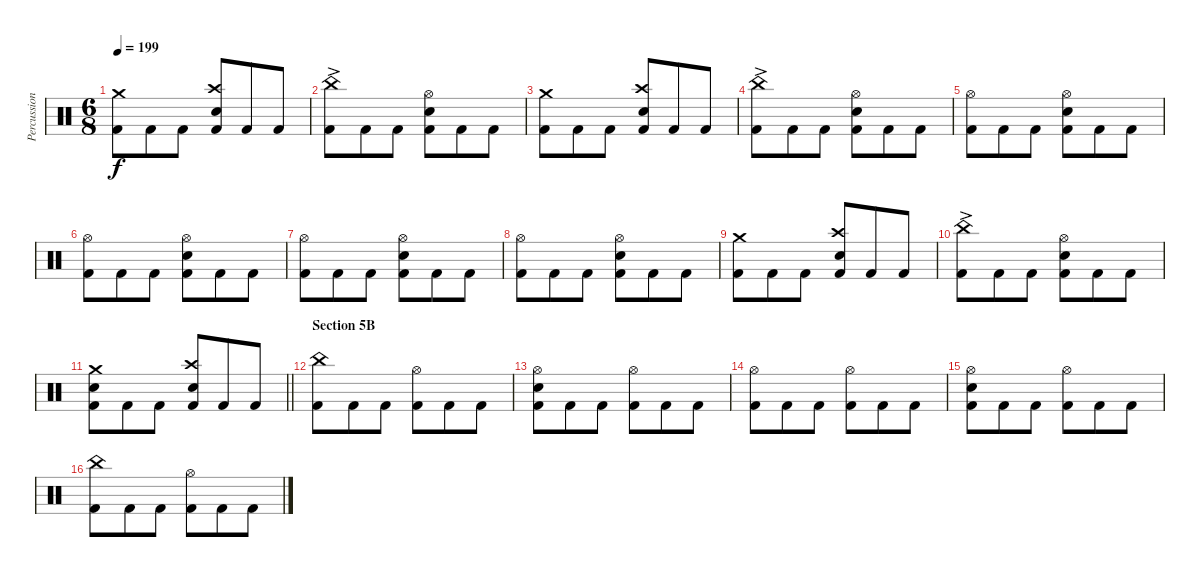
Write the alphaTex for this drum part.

\track ("Percussion" "Percussion") {instrument percussion}
\staff {score}
\articulation defaults
\ts (6 8)
\tempo 199
\clef neutral
\ks c
("Crash medium (hit)" "Kick (hit) 2").8{dy f} "Kick (hit) 2".8 "Kick (hit) 2".8 ("Crash high (hit)" "Electric Snare (hit)" "Kick (hit) 2").8 "Kick (hit) 2".8 "Kick (hit) 2".8 |
("China (hit)"{ac} "Kick (hit) 2").8 "Kick (hit) 2".8 "Kick (hit) 2".8 ("Hi-Hat (open)" "Electric Snare (hit)" "Kick (hit) 2").8 "Kick (hit) 2".8 "Kick (hit) 2".8 |
("Crash medium (hit)" "Kick (hit) 2").8 "Kick (hit) 2".8 "Kick (hit) 2".8 ("Crash high (hit)" "Electric Snare (hit)" "Kick (hit) 2").8 "Kick (hit) 2".8 "Kick (hit) 2".8 |
("China (hit)"{ac} "Kick (hit) 2").8 "Kick (hit) 2".8 "Kick (hit) 2".8 ("Hi-Hat (open)" "Electric Snare (hit)" "Kick (hit) 2").8 "Kick (hit) 2".8 "Kick (hit) 2".8 |
("Hi-Hat (open)" "Kick (hit) 2").8 "Kick (hit) 2".8 "Kick (hit) 2".8 ("Hi-Hat (open)" "Electric Snare (hit)" "Kick (hit) 2").8 "Kick (hit) 2".8 "Kick (hit) 2".8 |
("Hi-Hat (open)" "Kick (hit) 2").8 "Kick (hit) 2".8 "Kick (hit) 2".8 ("Hi-Hat (open)" "Electric Snare (hit)" "Kick (hit) 2").8 "Kick (hit) 2".8 "Kick (hit) 2".8 |
("Hi-Hat (open)" "Kick (hit) 2").8 "Kick (hit) 2".8 "Kick (hit) 2".8 ("Hi-Hat (open)" "Electric Snare (hit)" "Kick (hit) 2").8 "Kick (hit) 2".8 "Kick (hit) 2".8 |
("Hi-Hat (open)" "Kick (hit) 2").8 "Kick (hit) 2".8 "Kick (hit) 2".8 ("Hi-Hat (open)" "Electric Snare (hit)" "Kick (hit) 2").8 "Kick (hit) 2".8 "Kick (hit) 2".8 |
("Crash medium (hit)" "Kick (hit) 2").8 "Kick (hit) 2".8 "Kick (hit) 2".8 ("Crash high (hit)" "Electric Snare (hit)" "Kick (hit) 2").8 "Kick (hit) 2".8 "Kick (hit) 2".8 |
("China (hit)"{ac} "Kick (hit) 2").8 "Kick (hit) 2".8 "Kick (hit) 2".8 ("Hi-Hat (open)" "Electric Snare (hit)" "Kick (hit) 2").8 "Kick (hit) 2".8 "Kick (hit) 2".8 |
\barLineRight lightlight
("Crash medium (hit)" "Electric Snare (hit)" "Kick (hit) 2").8 "Kick (hit) 2".8 "Kick (hit) 2".8 ("Crash high (hit)" "Electric Snare (hit)" "Kick (hit) 2").8 "Kick (hit) 2".8 "Kick (hit) 2".8 |
\section ("" "Section 5B")
("China (hit)" "Kick (hit) 2").8 "Kick (hit) 2".8 "Kick (hit) 2".8 ("Hi-Hat (open)" "Kick (hit) 2").8 "Kick (hit) 2".8 "Kick (hit) 2".8 |
("Hi-Hat (open)" "Electric Snare (hit)" "Kick (hit) 2").8 "Kick (hit) 2".8 "Kick (hit) 2".8 ("Hi-Hat (open)" "Kick (hit) 2").8 "Kick (hit) 2".8 "Kick (hit) 2".8 |
("Hi-Hat (open)" "Kick (hit) 2").8 "Kick (hit) 2".8 "Kick (hit) 2".8 ("Hi-Hat (open)" "Kick (hit) 2").8 "Kick (hit) 2".8 "Kick (hit) 2".8 |
("Hi-Hat (open)" "Electric Snare (hit)" "Kick (hit) 2").8 "Kick (hit) 2".8 "Kick (hit) 2".8 ("Hi-Hat (open)" "Kick (hit) 2").8 "Kick (hit) 2".8 "Kick (hit) 2".8 |
("China (hit)" "Kick (hit) 2").8 "Kick (hit) 2".8 "Kick (hit) 2".8 ("Hi-Hat (open)" "Kick (hit) 2").8 "Kick (hit) 2".8 "Kick (hit) 2".8
